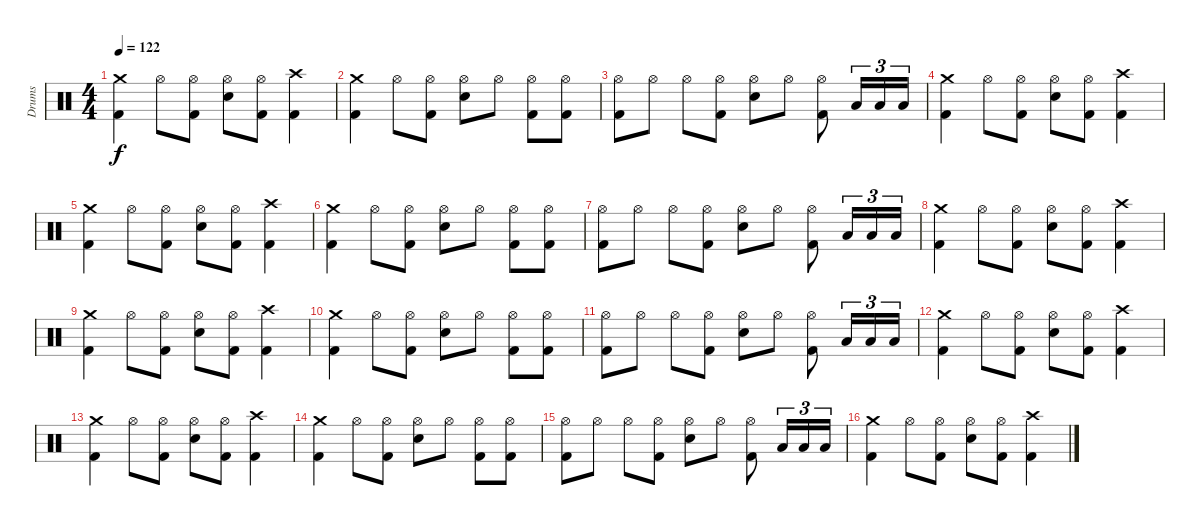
\track ("Drums" "Drums") {instrument percussion}
\staff {score}
\articulation defaults
\ts (4 4)
\tempo 122
\clef neutral
\ks c
("Crash medium (hit)" "Kick (hit) 2").4{dy f} "Hi-Hat (open)".8 ("Hi-Hat (open)" "Kick (hit) 2").8 ("Hi-Hat (open)" "Electric Snare (hit)").8 ("Hi-Hat (open)" "Kick (hit) 2").8 ("Crash high (hit)" "Kick (hit) 2").4 |
("Crash medium (hit)" "Kick (hit) 2").4 "Hi-Hat (open)".8 ("Hi-Hat (open)" "Kick (hit) 2").8 ("Hi-Hat (open)" "Electric Snare (hit)").8 "Hi-Hat (open)".8 ("Hi-Hat (open)" "Kick (hit) 2").8 ("Hi-Hat (open)" "Kick (hit) 2").8 |
("Hi-Hat (open)" "Kick (hit) 2").8 "Hi-Hat (open)".8 "Hi-Hat (open)".8 ("Hi-Hat (open)" "Kick (hit) 2").8 ("Hi-Hat (open)" "Electric Snare (hit)").8 "Hi-Hat (open)".8 ("Hi-Hat (open)" "Kick (hit) 2").8 "Low Tom (hit)".16{tu (3 2)} "Low Tom (hit)".16{tu (3 2)} "Low Tom (hit)".16{tu (3 2)} |
("Crash medium (hit)" "Kick (hit) 2").4 "Hi-Hat (open)".8 ("Hi-Hat (open)" "Kick (hit) 2").8 ("Hi-Hat (open)" "Electric Snare (hit)").8 ("Hi-Hat (open)" "Kick (hit) 2").8 ("Crash high (hit)" "Kick (hit) 2").4 |
("Crash medium (hit)" "Kick (hit) 2").4 "Hi-Hat (open)".8 ("Hi-Hat (open)" "Kick (hit) 2").8 ("Hi-Hat (open)" "Electric Snare (hit)").8 ("Hi-Hat (open)" "Kick (hit) 2").8 ("Crash high (hit)" "Kick (hit) 2").4 |
("Crash medium (hit)" "Kick (hit) 2").4 "Hi-Hat (open)".8 ("Hi-Hat (open)" "Kick (hit) 2").8 ("Hi-Hat (open)" "Electric Snare (hit)").8 "Hi-Hat (open)".8 ("Hi-Hat (open)" "Kick (hit) 2").8 ("Hi-Hat (open)" "Kick (hit) 2").8 |
("Hi-Hat (open)" "Kick (hit) 2").8 "Hi-Hat (open)".8 "Hi-Hat (open)".8 ("Hi-Hat (open)" "Kick (hit) 2").8 ("Hi-Hat (open)" "Electric Snare (hit)").8 "Hi-Hat (open)".8 ("Hi-Hat (open)" "Kick (hit) 2").8 "Low Tom (hit)".16{tu (3 2)} "Low Tom (hit)".16{tu (3 2)} "Low Tom (hit)".16{tu (3 2)} |
("Crash medium (hit)" "Kick (hit) 2").4 "Hi-Hat (open)".8 ("Hi-Hat (open)" "Kick (hit) 2").8 ("Hi-Hat (open)" "Electric Snare (hit)").8 ("Hi-Hat (open)" "Kick (hit) 2").8 ("Crash high (hit)" "Kick (hit) 2").4 |
("Crash medium (hit)" "Kick (hit) 2").4 "Hi-Hat (open)".8 ("Hi-Hat (open)" "Kick (hit) 2").8 ("Hi-Hat (open)" "Electric Snare (hit)").8 ("Hi-Hat (open)" "Kick (hit) 2").8 ("Crash high (hit)" "Kick (hit) 2").4 |
("Crash medium (hit)" "Kick (hit) 2").4 "Hi-Hat (open)".8 ("Hi-Hat (open)" "Kick (hit) 2").8 ("Hi-Hat (open)" "Electric Snare (hit)").8 "Hi-Hat (open)".8 ("Hi-Hat (open)" "Kick (hit) 2").8 ("Hi-Hat (open)" "Kick (hit) 2").8 |
("Hi-Hat (open)" "Kick (hit) 2").8 "Hi-Hat (open)".8 "Hi-Hat (open)".8 ("Hi-Hat (open)" "Kick (hit) 2").8 ("Hi-Hat (open)" "Electric Snare (hit)").8 "Hi-Hat (open)".8 ("Hi-Hat (open)" "Kick (hit) 2").8 "Low Tom (hit)".16{tu (3 2)} "Low Tom (hit)".16{tu (3 2)} "Low Tom (hit)".16{tu (3 2)} |
("Crash medium (hit)" "Kick (hit) 2").4 "Hi-Hat (open)".8 ("Hi-Hat (open)" "Kick (hit) 2").8 ("Hi-Hat (open)" "Electric Snare (hit)").8 ("Hi-Hat (open)" "Kick (hit) 2").8 ("Crash high (hit)" "Kick (hit) 2").4 |
("Crash medium (hit)" "Kick (hit) 2").4 "Hi-Hat (open)".8 ("Hi-Hat (open)" "Kick (hit) 2").8 ("Hi-Hat (open)" "Electric Snare (hit)").8 ("Hi-Hat (open)" "Kick (hit) 2").8 ("Crash high (hit)" "Kick (hit) 2").4 |
("Crash medium (hit)" "Kick (hit) 2").4 "Hi-Hat (open)".8 ("Hi-Hat (open)" "Kick (hit) 2").8 ("Hi-Hat (open)" "Electric Snare (hit)").8 "Hi-Hat (open)".8 ("Hi-Hat (open)" "Kick (hit) 2").8 ("Hi-Hat (open)" "Kick (hit) 2").8 |
("Hi-Hat (open)" "Kick (hit) 2").8 "Hi-Hat (open)".8 "Hi-Hat (open)".8 ("Hi-Hat (open)" "Kick (hit) 2").8 ("Hi-Hat (open)" "Electric Snare (hit)").8 "Hi-Hat (open)".8 ("Hi-Hat (open)" "Kick (hit) 2").8 "Low Tom (hit)".16{tu (3 2)} "Low Tom (hit)".16{tu (3 2)} "Low Tom (hit)".16{tu (3 2)} |
("Crash medium (hit)" "Kick (hit) 2").4 "Hi-Hat (open)".8 ("Hi-Hat (open)" "Kick (hit) 2").8 ("Hi-Hat (open)" "Electric Snare (hit)").8 ("Hi-Hat (open)" "Kick (hit) 2").8 ("Crash high (hit)" "Kick (hit) 2").4
